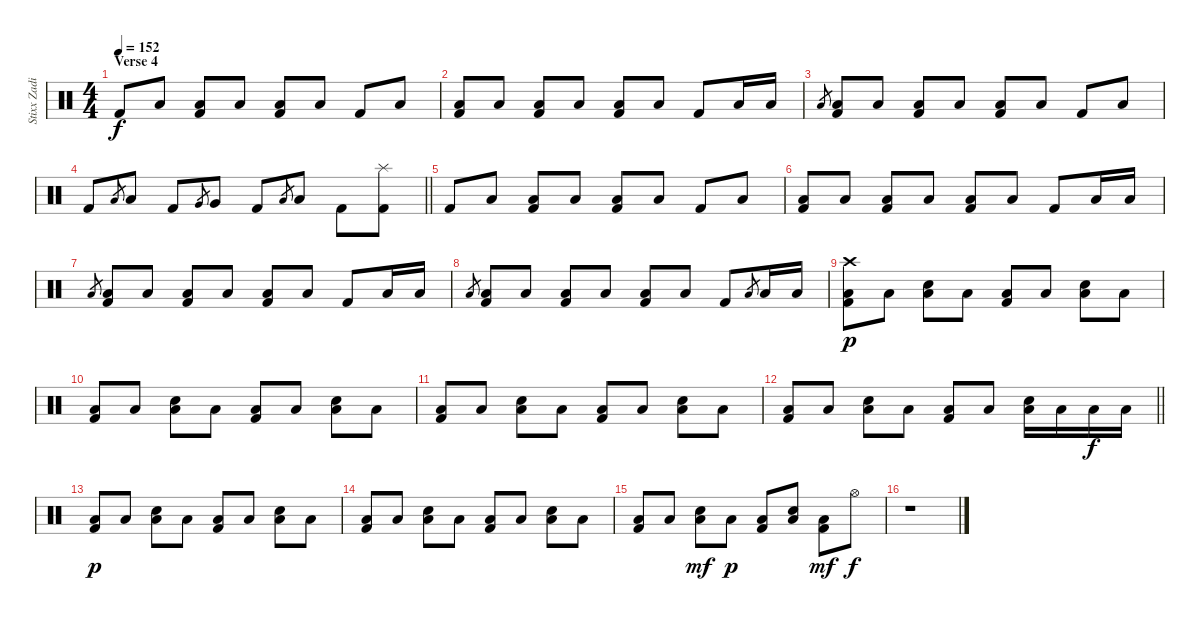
\track ("Stixx Zadinia" "Stixx Zadi") {instrument percussion}
\staff {score}
\articulation defaults
\ts (4 4)
\section ("" "Verse 4")
\tempo 152
\clef neutral
\ks c "Kick (hit) 2".8{dy f} "Low Floor Tom (hit)".8
("Low Floor Tom (hit)" "Kick (hit) 2").8 "Low Floor Tom (hit)".8 ("Low Floor Tom (hit)" "Kick (hit) 2").8 "Low Floor Tom (hit)".8 "Kick (hit) 2".8 "Low Floor Tom (hit)".8 |
("Low Floor Tom (hit)" "Kick (hit) 2").8 "Low Floor Tom (hit)".8 ("Low Floor Tom (hit)" "Kick (hit) 2").8 "Low Floor Tom (hit)".8 ("Low Floor Tom (hit)" "Kick (hit) 2").8 "Low Floor Tom (hit)".8 "Kick (hit) 2".8 "Low Floor Tom (hit)".16 "Low Floor Tom (hit)".16 |
"Low Floor Tom (hit)".8{gr} ("Low Floor Tom (hit)" "Kick (hit) 2").8 "Low Floor Tom (hit)".8 ("Low Floor Tom (hit)" "Kick (hit) 2").8 "Low Floor Tom (hit)".8 ("Low Floor Tom (hit)" "Kick (hit) 2").8 "Low Floor Tom (hit)".8 "Kick (hit) 2".8 "Low Floor Tom (hit)".8 |
\barLineRight lightlight "Kick (hit) 2".8 "Low Tom (hit)".8{gr} "Low Tom (hit)".8 "Kick (hit) 2".8 "Very Low Tom (hit)".8{gr} "Very Low Tom (hit)".8 "Kick (hit) 2".8 "Low Floor Tom (hit)".8{gr} "Low Floor Tom (hit)".8 "Kick (hit) 2".8
("Splash (hit)" "Kick (hit) 2").8 |
"Kick (hit) 2".8 "Low Floor Tom (hit)".8 ("Low Floor Tom (hit)" "Kick (hit) 2").8 "Low Floor Tom (hit)".8 ("Low Floor Tom (hit)" "Kick (hit) 2").8 "Low Floor Tom (hit)".8 "Kick (hit) 2".8 "Low Floor Tom (hit)".8 |
("Low Floor Tom (hit)" "Kick (hit) 2").8 "Low Floor Tom (hit)".8 ("Low Floor Tom (hit)" "Kick (hit) 2").8 "Low Floor Tom (hit)".8 ("Low Floor Tom (hit)" "Kick (hit) 2").8 "Low Floor Tom (hit)".8 "Kick (hit) 2".8 "Low Floor Tom (hit)".16 "Low Floor Tom (hit)".16 |
"Low Floor Tom (hit)".8{gr} ("Low Floor Tom (hit)" "Kick (hit) 2").8 "Low Floor Tom (hit)".8 ("Low Floor Tom (hit)" "Kick (hit) 2").8 "Low Floor Tom (hit)".8 ("Low Floor Tom (hit)" "Kick (hit) 2").8 "Low Floor Tom (hit)".8 "Kick (hit) 2".8 "Low Floor Tom (hit)".16 "Low Floor Tom (hit)".16 |
"Low Floor Tom (hit)".8{gr} ("Low Floor Tom (hit)" "Kick (hit) 2").8 "Low Floor Tom (hit)".8 ("Low Floor Tom (hit)" "Kick (hit) 2").8 "Low Floor Tom (hit)".8 ("Low Floor Tom (hit)" "Kick (hit) 2").8 "Low Floor Tom (hit)".8 "Kick (hit) 2".8 "Low Floor Tom (hit)".8{gr} "Low Floor Tom (hit)".16 "Low Floor Tom (hit)".16 |
("Crash high (hit)" "Low Floor Tom (hit)" "Kick (hit) 2").8{dy p} "Low Floor Tom (hit)".8 ("Low Floor Tom (hit)" "Snare (hit) 2").8 "Low Floor Tom (hit)".8 ("Low Floor Tom (hit)" "Kick (hit) 2").8 "Low Floor Tom (hit)".8 ("Low Floor Tom (hit)" "Snare (hit) 2").8 "Low Floor Tom (hit)".8 |
("Low Floor Tom (hit)" "Kick (hit) 2").8 "Low Floor Tom (hit)".8 ("Low Floor Tom (hit)" "Snare (hit) 2").8 "Low Floor Tom (hit)".8 ("Low Floor Tom (hit)" "Kick (hit) 2").8 "Low Floor Tom (hit)".8 ("Low Floor Tom (hit)" "Snare (hit) 2").8 "Low Floor Tom (hit)".8 |
("Low Floor Tom (hit)" "Kick (hit) 2").8 "Low Floor Tom (hit)".8 ("Low Floor Tom (hit)" "Snare (hit) 2").8 "Low Floor Tom (hit)".8 ("Low Floor Tom (hit)" "Kick (hit) 2").8 "Low Floor Tom (hit)".8 ("Low Floor Tom (hit)" "Snare (hit) 2").8 "Low Floor Tom (hit)".8 |
\barLineRight lightlight
("Low Floor Tom (hit)" "Kick (hit) 2").8 "Low Floor Tom (hit)".8 ("Low Floor Tom (hit)" "Snare (hit) 2").8 "Low Floor Tom (hit)".8 ("Low Floor Tom (hit)" "Kick (hit) 2").8 "Low Floor Tom (hit)".8 ("Low Floor Tom (hit)" "Snare (hit) 2").16 "Low Floor Tom (hit)".16 "Low Floor Tom (hit)".16{dy f} "Low Floor Tom (hit)".16 |
("Low Floor Tom (hit)" "Kick (hit) 2").8{dy p} "Low Floor Tom (hit)".8 ("Low Floor Tom (hit)" "Snare (hit) 2").8 "Low Floor Tom (hit)".8 ("Low Floor Tom (hit)" "Kick (hit) 2").8 "Low Floor Tom (hit)".8 ("Low Floor Tom (hit)" "Snare (hit) 2").8 "Low Floor Tom (hit)".8 |
("Low Floor Tom (hit)" "Kick (hit) 2").8 "Low Floor Tom (hit)".8 ("Low Floor Tom (hit)" "Snare (hit) 2").8 "Low Floor Tom (hit)".8 ("Low Floor Tom (hit)" "Kick (hit) 2").8 "Low Floor Tom (hit)".8 ("Low Floor Tom (hit)" "Snare (hit) 2").8 "Low Floor Tom (hit)".8 |
("Low Floor Tom (hit)" "Kick (hit) 2").8 "Low Floor Tom (hit)".8 ("Low Floor Tom (hit)" "Snare (hit) 2").8{dy mf} "Low Floor Tom (hit)".8{dy p} ("Low Floor Tom (hit)" "Kick (hit) 2").8 ("Low Floor Tom (hit)" "Snare (hit) 2").8 ("Low Floor Tom (hit)" "Kick (hit) 2").8{dy mf} "Hi-Hat (open)".8{dy f} |
r.1
